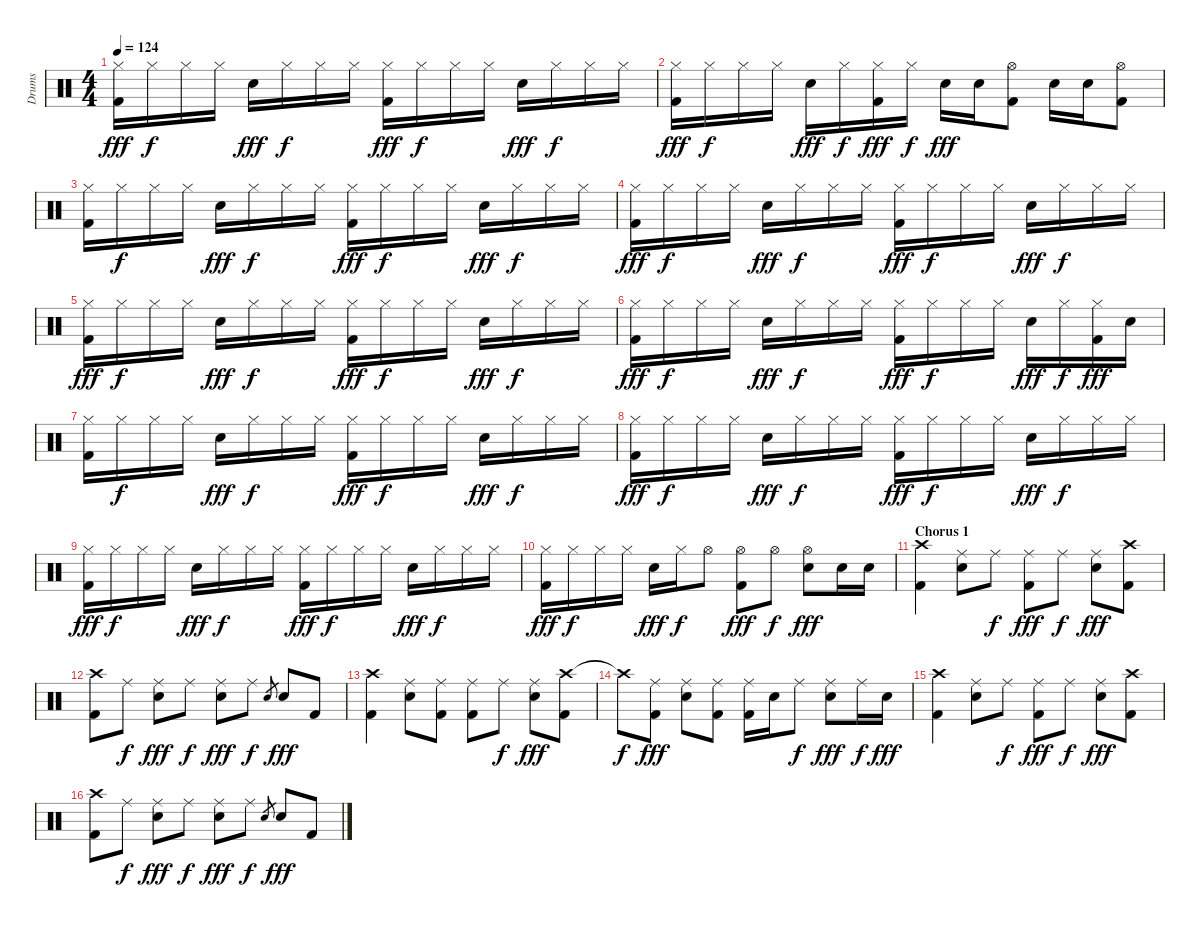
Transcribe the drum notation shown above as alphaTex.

\track ("Drums" "Drums") {instrument percussion}
\staff {score}
\articulation defaults
\ts (4 4)
\tempo 124
\clef neutral
\ks c
("Hi-Hat (closed)" "Kick (hit) 2").16{dy fff} "Hi-Hat (closed)".16{dy f} "Hi-Hat (closed)".16 "Hi-Hat (closed)".16 "Electric Snare (hit)".16{dy fff} "Hi-Hat (closed)".16{dy f} "Hi-Hat (closed)".16 "Hi-Hat (closed)".16 ("Hi-Hat (closed)" "Kick (hit) 2").16{dy fff} "Hi-Hat (closed)".16{dy f} "Hi-Hat (closed)".16 "Hi-Hat (closed)".16 "Electric Snare (hit)".16{dy fff} "Hi-Hat (closed)".16{dy f} "Hi-Hat (closed)".16 "Hi-Hat (closed)".16 |
("Hi-Hat (closed)" "Kick (hit) 2").16{dy fff} "Hi-Hat (closed)".16{dy f} "Hi-Hat (closed)".16 "Hi-Hat (closed)".16 "Electric Snare (hit)".16{dy fff} "Hi-Hat (closed)".16{dy f} ("Hi-Hat (closed)" "Kick (hit) 2").16{dy fff} "Hi-Hat (closed)".16{dy f} "Electric Snare (hit)".16{dy fff} "Electric Snare (hit)".16 ("Hi-Hat (open)" "Kick (hit) 2").8 "Electric Snare (hit)".16 "Electric Snare (hit)".16 ("Hi-Hat (open)" "Kick (hit) 2").8 |
("Hi-Hat (closed)" "Kick (hit) 2").16 "Hi-Hat (closed)".16{dy f} "Hi-Hat (closed)".16 "Hi-Hat (closed)".16 "Electric Snare (hit)".16{dy fff} "Hi-Hat (closed)".16{dy f} "Hi-Hat (closed)".16 "Hi-Hat (closed)".16 ("Hi-Hat (closed)" "Kick (hit) 2").16{dy fff} "Hi-Hat (closed)".16{dy f} "Hi-Hat (closed)".16 "Hi-Hat (closed)".16 "Electric Snare (hit)".16{dy fff} "Hi-Hat (closed)".16{dy f} "Hi-Hat (closed)".16 "Hi-Hat (closed)".16 |
("Hi-Hat (closed)" "Kick (hit) 2").16{dy fff} "Hi-Hat (closed)".16{dy f} "Hi-Hat (closed)".16 "Hi-Hat (closed)".16 "Electric Snare (hit)".16{dy fff} "Hi-Hat (closed)".16{dy f} "Hi-Hat (closed)".16 "Hi-Hat (closed)".16 ("Hi-Hat (closed)" "Kick (hit) 2").16{dy fff} "Hi-Hat (closed)".16{dy f} "Hi-Hat (closed)".16 "Hi-Hat (closed)".16 "Electric Snare (hit)".16{dy fff} "Hi-Hat (closed)".16{dy f} "Hi-Hat (closed)".16 "Hi-Hat (closed)".16 |
("Hi-Hat (closed)" "Kick (hit) 2").16{dy fff} "Hi-Hat (closed)".16{dy f} "Hi-Hat (closed)".16 "Hi-Hat (closed)".16 "Electric Snare (hit)".16{dy fff} "Hi-Hat (closed)".16{dy f} "Hi-Hat (closed)".16 "Hi-Hat (closed)".16 ("Hi-Hat (closed)" "Kick (hit) 2").16{dy fff} "Hi-Hat (closed)".16{dy f} "Hi-Hat (closed)".16 "Hi-Hat (closed)".16 "Electric Snare (hit)".16{dy fff} "Hi-Hat (closed)".16{dy f} "Hi-Hat (closed)".16 "Hi-Hat (closed)".16 |
("Hi-Hat (closed)" "Kick (hit) 2").16{dy fff} "Hi-Hat (closed)".16{dy f} "Hi-Hat (closed)".16 "Hi-Hat (closed)".16 "Electric Snare (hit)".16{dy fff} "Hi-Hat (closed)".16{dy f} "Hi-Hat (closed)".16 "Hi-Hat (closed)".16 ("Hi-Hat (closed)" "Kick (hit) 2").16{dy fff} "Hi-Hat (closed)".16{dy f} "Hi-Hat (closed)".16 "Hi-Hat (closed)".16 "Electric Snare (hit)".16{dy fff} "Hi-Hat (closed)".16{dy f} ("Hi-Hat (closed)" "Kick (hit) 2").16{dy fff} "Electric Snare (hit)".16 |
("Hi-Hat (closed)" "Kick (hit) 2").16 "Hi-Hat (closed)".16{dy f} "Hi-Hat (closed)".16 "Hi-Hat (closed)".16 "Electric Snare (hit)".16{dy fff} "Hi-Hat (closed)".16{dy f} "Hi-Hat (closed)".16 "Hi-Hat (closed)".16 ("Hi-Hat (closed)" "Kick (hit) 2").16{dy fff} "Hi-Hat (closed)".16{dy f} "Hi-Hat (closed)".16 "Hi-Hat (closed)".16 "Electric Snare (hit)".16{dy fff} "Hi-Hat (closed)".16{dy f} "Hi-Hat (closed)".16 "Hi-Hat (closed)".16 |
("Hi-Hat (closed)" "Kick (hit) 2").16{dy fff} "Hi-Hat (closed)".16{dy f} "Hi-Hat (closed)".16 "Hi-Hat (closed)".16 "Electric Snare (hit)".16{dy fff} "Hi-Hat (closed)".16{dy f} "Hi-Hat (closed)".16 "Hi-Hat (closed)".16 ("Hi-Hat (closed)" "Kick (hit) 2").16{dy fff} "Hi-Hat (closed)".16{dy f} "Hi-Hat (closed)".16 "Hi-Hat (closed)".16 "Electric Snare (hit)".16{dy fff} "Hi-Hat (closed)".16{dy f} "Hi-Hat (closed)".16 "Hi-Hat (closed)".16 |
("Hi-Hat (closed)" "Kick (hit) 2").16{dy fff} "Hi-Hat (closed)".16{dy f} "Hi-Hat (closed)".16 "Hi-Hat (closed)".16 "Electric Snare (hit)".16{dy fff} "Hi-Hat (closed)".16{dy f} "Hi-Hat (closed)".16 "Hi-Hat (closed)".16 ("Hi-Hat (closed)" "Kick (hit) 2").16{dy fff} "Hi-Hat (closed)".16{dy f} "Hi-Hat (closed)".16 "Hi-Hat (closed)".16 "Electric Snare (hit)".16{dy fff} "Hi-Hat (closed)".16{dy f} "Hi-Hat (closed)".16 "Hi-Hat (closed)".16 |
("Hi-Hat (closed)" "Kick (hit) 2").16{dy fff} "Hi-Hat (closed)".16{dy f} "Hi-Hat (closed)".16 "Hi-Hat (closed)".16 "Electric Snare (hit)".16{dy fff} "Hi-Hat (closed)".16{dy f} "Hi-Hat (open)".8 ("Hi-Hat (open)" "Kick (hit) 2").8{dy fff} "Hi-Hat (open)".8{dy f} ("Hi-Hat (open)" "Electric Snare (hit)").8{dy fff} "Electric Snare (hit)".16 "Electric Snare (hit)".16 |
\section ("" "Chorus 1")
("Crash high (hit)" "Kick (hit) 2").4 ("Ride (middle)" "Electric Snare (hit)").8 "Ride (middle)".8{dy f} ("Ride (middle)" "Kick (hit) 2").8{dy fff} "Ride (middle)".8{dy f} ("Ride (middle)" "Electric Snare (hit)").8{dy fff} ("Crash high (hit)" "Kick (hit) 2").8 |
("Crash high (hit)" "Kick (hit) 2").8 "Ride (middle)".8{dy f} ("Ride (middle)" "Electric Snare (hit)").8{dy fff} "Ride (middle)".8{dy f} ("Ride (middle)" "Electric Snare (hit)").8{dy fff} "Ride (middle)".8{dy f} "Electric Snare (hit)".8{gr} "Electric Snare (hit)".8{dy fff} "Kick (hit) 2".8 |
("Crash high (hit)" "Kick (hit) 2").4 ("Ride (middle)" "Electric Snare (hit)").8 ("Ride (middle)" "Kick (hit) 2").8 ("Ride (middle)" "Kick (hit) 2").8 "Ride (middle)".8{dy f} ("Ride (middle)" "Electric Snare (hit)").8{dy fff} ("Crash high (hit)" "Kick (hit) 2").8 |
"Crash high (hit)"{t}.8{dy f} ("Ride (middle)" "Kick (hit) 2").8{dy fff} ("Ride (middle)" "Electric Snare (hit)").8 ("Ride (middle)" "Kick (hit) 2").8 ("Ride (middle)" "Kick (hit) 2").16 "Electric Snare (hit)".16 "Ride (middle)".8{dy f} ("Ride (middle)" "Electric Snare (hit)").8{dy fff} "Ride (middle)".16{dy f} "Electric Snare (hit)".16{dy fff} |
("Crash high (hit)" "Kick (hit) 2").4 ("Ride (middle)" "Electric Snare (hit)").8 "Ride (middle)".8{dy f} ("Ride (middle)" "Kick (hit) 2").8{dy fff} "Ride (middle)".8{dy f} ("Ride (middle)" "Electric Snare (hit)").8{dy fff} ("Crash high (hit)" "Kick (hit) 2").8 |
("Crash high (hit)" "Kick (hit) 2").8 "Ride (middle)".8{dy f} ("Ride (middle)" "Electric Snare (hit)").8{dy fff} "Ride (middle)".8{dy f} ("Ride (middle)" "Electric Snare (hit)").8{dy fff} "Ride (middle)".8{dy f} "Electric Snare (hit)".8{gr} "Electric Snare (hit)".8{dy fff} "Kick (hit) 2".8
